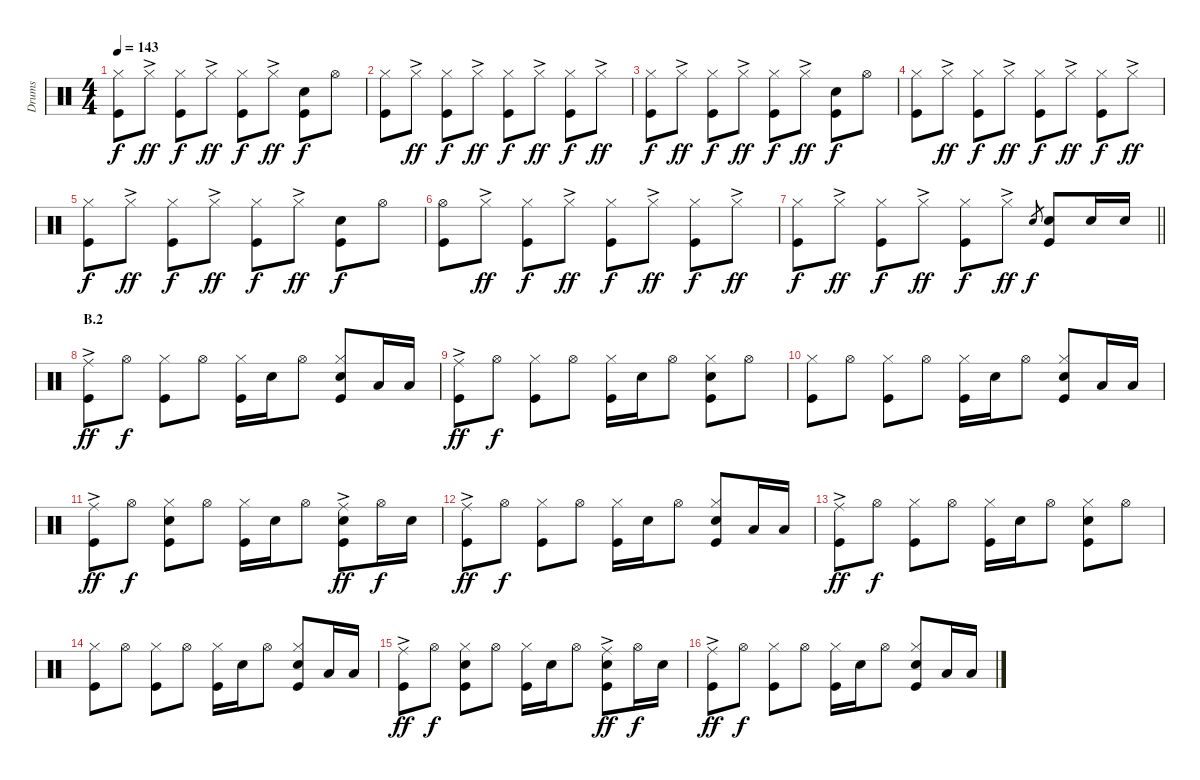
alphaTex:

\track ("Drums" "Drums") {instrument percussion}
\staff {score}
\articulation defaults
\ts (4 4)
\tempo 143
\clef neutral
\ks c
("Kick (hit)" "Hi-Hat (closed)").8{dy f} "Hi-Hat (closed)"{ac}.8{dy ff} ("Hi-Hat (closed)" "Kick (hit)").8{dy f} "Hi-Hat (closed)"{ac}.8{dy ff} ("Hi-Hat (closed)" "Kick (hit)").8{dy f} "Hi-Hat (closed)"{ac}.8{dy ff} ("Kick (hit)" "Snare (hit) 2").8{dy f} "Hi-Hat (open)".8 |
("Kick (hit)" "Hi-Hat (closed)").8 "Hi-Hat (closed)"{ac}.8{dy ff} ("Hi-Hat (closed)" "Kick (hit)").8{dy f} "Hi-Hat (closed)"{ac}.8{dy ff} ("Hi-Hat (closed)" "Kick (hit)").8{dy f} "Hi-Hat (closed)"{ac}.8{dy ff} ("Hi-Hat (closed)" "Kick (hit)").8{dy f} "Hi-Hat (closed)"{ac}.8{dy ff} |
("Hi-Hat (closed)" "Kick (hit)").8{dy f} "Hi-Hat (closed)"{ac}.8{dy ff} ("Hi-Hat (closed)" "Kick (hit)").8{dy f} "Hi-Hat (closed)"{ac}.8{dy ff} ("Hi-Hat (closed)" "Kick (hit)").8{dy f} "Hi-Hat (closed)"{ac}.8{dy ff} ("Snare (hit) 2" "Kick (hit)").8{dy f} "Hi-Hat (open)".8 |
("Kick (hit)" "Hi-Hat (closed)").8 "Hi-Hat (closed)"{ac}.8{dy ff} ("Hi-Hat (closed)" "Kick (hit)").8{dy f} "Hi-Hat (closed)"{ac}.8{dy ff} ("Hi-Hat (closed)" "Kick (hit)").8{dy f} "Hi-Hat (closed)"{ac}.8{dy ff} ("Hi-Hat (closed)" "Kick (hit)").8{dy f} "Hi-Hat (closed)"{ac}.8{dy ff} |
("Hi-Hat (closed)" "Kick (hit)").8{dy f} "Hi-Hat (closed)"{ac}.8{dy ff} ("Hi-Hat (closed)" "Kick (hit)").8{dy f} "Hi-Hat (closed)"{ac}.8{dy ff} ("Hi-Hat (closed)" "Kick (hit)").8{dy f} "Hi-Hat (closed)"{ac}.8{dy ff} ("Snare (hit) 2" "Kick (hit)").8{dy f} "Hi-Hat (open)".8 |
("Hi-Hat (open)" "Kick (hit)").8 "Hi-Hat (closed)"{ac}.8{dy ff} ("Hi-Hat (closed)" "Kick (hit)").8{dy f} "Hi-Hat (closed)"{ac}.8{dy ff} ("Hi-Hat (closed)" "Kick (hit)").8{dy f} "Hi-Hat (closed)"{ac}.8{dy ff} ("Hi-Hat (closed)" "Kick (hit)").8{dy f} "Hi-Hat (closed)"{ac}.8{dy ff} |
\barLineRight lightlight
("Hi-Hat (closed)" "Kick (hit)").8{dy f} "Hi-Hat (closed)"{ac}.8{dy ff} ("Hi-Hat (closed)" "Kick (hit)").8{dy f} "Hi-Hat (closed)"{ac}.8{dy ff} ("Hi-Hat (closed)" "Kick (hit)").8{dy f} "Hi-Hat (closed)"{ac}.8{dy ff} "Snare (hit) 2".8{gr dy f} ("Snare (hit) 2" "Kick (hit)").8 "Snare (hit) 2".16 "Snare (hit) 2".16 |
\section ("" "B.2")
("Kick (hit)" "Ride (middle)"{ac}).8{dy ff} "Hi-Hat (open)".8{dy f} ("Hi-Hat (closed)" "Kick (hit)").8 "Hi-Hat (open)".8 ("Hi-Hat (closed)" "Kick (hit)").16 "Snare (hit) 2".16 "Hi-Hat (open)".8 ("Hi-Hat (closed)" "Snare (hit) 2" "Kick (hit)").8 "Low Tom (hit)".16 "Low Tom (hit)".16 |
("Kick (hit)" "Ride (middle)"{ac}).8{dy ff} "Hi-Hat (open)".8{dy f} ("Hi-Hat (closed)" "Kick (hit)").8 "Hi-Hat (open)".8 ("Hi-Hat (closed)" "Kick (hit)").16 "Snare (hit) 2".16 "Hi-Hat (open)".8 ("Hi-Hat (closed)" "Snare (hit) 2" "Kick (hit)").8 "Hi-Hat (open)".8 |
("Kick (hit)" "Hi-Hat (closed)").8 "Hi-Hat (open)".8 ("Hi-Hat (closed)" "Kick (hit)").8 "Hi-Hat (open)".8 ("Hi-Hat (closed)" "Kick (hit)").16 "Snare (hit) 2".16 "Hi-Hat (open)".8 ("Hi-Hat (closed)" "Snare (hit) 2" "Kick (hit)").8 "Low Tom (hit)".16 "Low Tom (hit)".16 |
("Ride (middle)"{ac} "Kick (hit)").8{dy ff} "Hi-Hat (open)".8{dy f} ("Hi-Hat (closed)" "Kick (hit)" "Snare (hit) 2").8 "Hi-Hat (open)".8 ("Hi-Hat (closed)" "Kick (hit)").16 "Snare (hit) 2".16 "Hi-Hat (open)".8 ("Ride (middle)"{ac} "Kick (hit)" "Snare (hit) 2").8{dy ff} "Hi-Hat (open)".16{dy f} "Snare (hit) 2".16 |
("Kick (hit)" "Ride (middle)"{ac}).8{dy ff} "Hi-Hat (open)".8{dy f} ("Hi-Hat (closed)" "Kick (hit)").8 "Hi-Hat (open)".8 ("Hi-Hat (closed)" "Kick (hit)").16 "Snare (hit) 2".16 "Hi-Hat (open)".8 ("Hi-Hat (closed)" "Snare (hit) 2" "Kick (hit)").8 "Low Tom (hit)".16 "Low Tom (hit)".16 |
("Kick (hit)" "Ride (middle)"{ac}).8{dy ff} "Hi-Hat (open)".8{dy f} ("Hi-Hat (closed)" "Kick (hit)").8 "Hi-Hat (open)".8 ("Hi-Hat (closed)" "Kick (hit)").16 "Snare (hit) 2".16 "Hi-Hat (open)".8 ("Hi-Hat (closed)" "Snare (hit) 2" "Kick (hit)").8 "Hi-Hat (open)".8 |
("Kick (hit)" "Hi-Hat (closed)").8 "Hi-Hat (open)".8 ("Hi-Hat (closed)" "Kick (hit)").8 "Hi-Hat (open)".8 ("Hi-Hat (closed)" "Kick (hit)").16 "Snare (hit) 2".16 "Hi-Hat (open)".8 ("Hi-Hat (closed)" "Snare (hit) 2" "Kick (hit)").8 "Low Tom (hit)".16 "Low Tom (hit)".16 |
("Ride (middle)"{ac} "Kick (hit)").8{dy ff} "Hi-Hat (open)".8{dy f} ("Hi-Hat (closed)" "Kick (hit)" "Snare (hit) 2").8 "Hi-Hat (open)".8 ("Hi-Hat (closed)" "Kick (hit)").16 "Snare (hit) 2".16 "Hi-Hat (open)".8 ("Ride (middle)"{ac} "Kick (hit)" "Snare (hit) 2").8{dy ff} "Hi-Hat (open)".16{dy f} "Snare (hit) 2".16 |
("Kick (hit)" "Ride (middle)"{ac}).8{dy ff} "Hi-Hat (open)".8{dy f} ("Hi-Hat (closed)" "Kick (hit)").8 "Hi-Hat (open)".8 ("Hi-Hat (closed)" "Kick (hit)").16 "Snare (hit) 2".16 "Hi-Hat (open)".8 ("Hi-Hat (closed)" "Snare (hit) 2" "Kick (hit)").8 "Low Tom (hit)".16 "Low Tom (hit)".16
